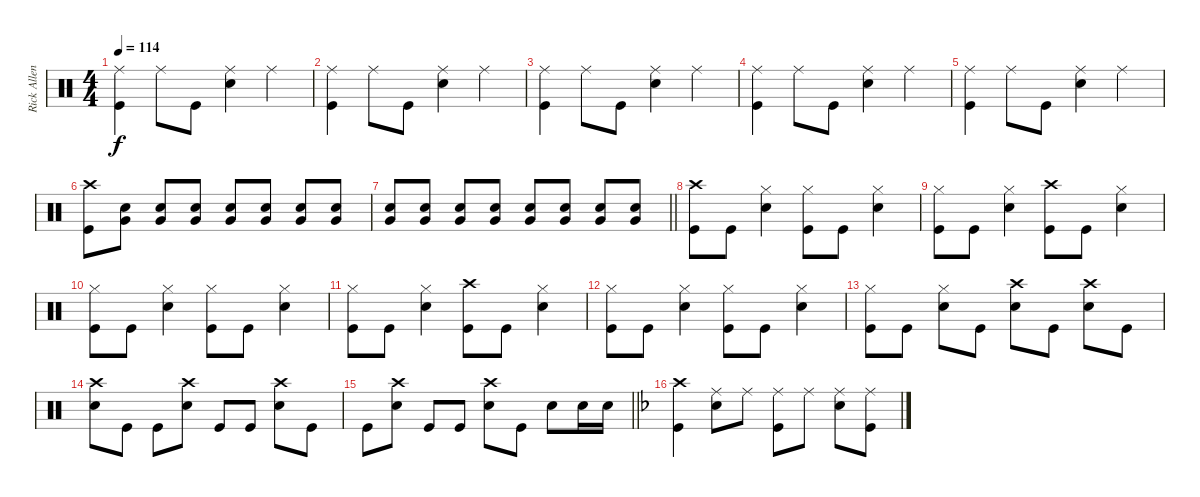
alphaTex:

\track ("Rick Allen" "Rick Allen") {instrument percussion}
\staff {score}
\articulation defaults
\ts (4 4)
\tempo 114
\clef neutral
\ks c
("Ride (middle)" "Kick (hit)").4{dy f} "Ride (middle)".8 "Kick (hit)".8 ("Ride (middle)" "Snare (hit) 2").4 "Ride (middle)".4 |
("Ride (middle)" "Kick (hit)").4 "Ride (middle)".8 "Kick (hit)".8 ("Ride (middle)" "Snare (hit) 2").4 "Ride (middle)".4 |
("Ride (middle)" "Kick (hit)").4 "Ride (middle)".8 "Kick (hit)".8 ("Ride (middle)" "Snare (hit) 2").4 "Ride (middle)".4 |
("Ride (middle)" "Kick (hit)").4 "Ride (middle)".8 "Kick (hit)".8 ("Ride (middle)" "Snare (hit) 2").4 "Ride (middle)".4 |
("Ride (middle)" "Kick (hit)").4 "Ride (middle)".8 "Kick (hit)".8 ("Ride (middle)" "Snare (hit) 2").4 "Ride (middle)".4 |
("Crash high (hit)" "Kick (hit)").8 ("Snare (hit) 2" "Very Low Tom (hit)").8 ("Snare (hit) 2" "Very Low Tom (hit)").8 ("Snare (hit) 2" "Very Low Tom (hit)").8 ("Snare (hit) 2" "Very Low Tom (hit)").8 ("Snare (hit) 2" "Very Low Tom (hit)").8 ("Snare (hit) 2" "Very Low Tom (hit)").8 ("Snare (hit) 2" "Very Low Tom (hit)").8 |
\barLineRight lightlight
("Snare (hit) 2" "Very Low Tom (hit)").8 ("Snare (hit) 2" "Very Low Tom (hit)").8 ("Snare (hit) 2" "Very Low Tom (hit)").8 ("Snare (hit) 2" "Very Low Tom (hit)").8 ("Snare (hit) 2" "Very Low Tom (hit)").8 ("Snare (hit) 2" "Very Low Tom (hit)").8 ("Snare (hit) 2" "Very Low Tom (hit)").8 ("Snare (hit) 2" "Very Low Tom (hit)").8 |
("Crash high (hit)" "Kick (hit)").8 "Kick (hit)".8 ("Hi-Hat (closed)" "Snare (hit) 2").4 ("Hi-Hat (closed)" "Kick (hit)").8 "Kick (hit)".8 ("Hi-Hat (closed)" "Snare (hit) 2").4 |
("Hi-Hat (closed)" "Kick (hit)").8 "Kick (hit)".8 ("Hi-Hat (closed)" "Snare (hit) 2").4 ("Crash high (hit)" "Kick (hit)").8 "Kick (hit)".8 ("Hi-Hat (closed)" "Snare (hit) 2").4 |
("Hi-Hat (closed)" "Kick (hit)").8 "Kick (hit)".8 ("Hi-Hat (closed)" "Snare (hit) 2").4 ("Hi-Hat (closed)" "Kick (hit)").8 "Kick (hit)".8 ("Hi-Hat (closed)" "Snare (hit) 2").4 |
("Hi-Hat (closed)" "Kick (hit)").8 "Kick (hit)".8 ("Hi-Hat (closed)" "Snare (hit) 2").4 ("Crash high (hit)" "Kick (hit)").8 "Kick (hit)".8 ("Hi-Hat (closed)" "Snare (hit) 2").4 |
("Hi-Hat (closed)" "Kick (hit)").8 "Kick (hit)".8 ("Hi-Hat (closed)" "Snare (hit) 2").4 ("Hi-Hat (closed)" "Kick (hit)").8 "Kick (hit)".8 ("Hi-Hat (closed)" "Snare (hit) 2").4 |
("Hi-Hat (closed)" "Kick (hit)").8 "Kick (hit)".8 ("Hi-Hat (closed)" "Snare (hit) 2").8 "Kick (hit)".8 ("Crash high (hit)" "Snare (hit) 2").8 "Kick (hit)".8 ("Crash high (hit)" "Snare (hit) 2").8 "Kick (hit)".8 |
("Crash high (hit)" "Snare (hit) 2").8 "Kick (hit)".8 "Kick (hit)".8 ("Crash high (hit)" "Snare (hit) 2").8 "Kick (hit)".8 "Kick (hit)".8 ("Crash high (hit)" "Snare (hit) 2").8 "Kick (hit)".8 |
\barLineRight lightlight "Kick (hit)".8
("Crash high (hit)" "Snare (hit) 2").8 "Kick (hit)".8 "Kick (hit)".8 ("Crash high (hit)" "Snare (hit) 2").8 "Kick (hit)".8 "Snare (hit) 2".8 "Snare (hit) 2".16 "Snare (hit) 2".16 |
\ks dminor
("Crash high (hit)" "Kick (hit)").4 ("Ride (middle)" "Snare (hit) 2").8 "Ride (middle)".8 ("Ride (middle)" "Kick (hit)").8 "Ride (middle)".8 ("Ride (middle)" "Snare (hit) 2").8 ("Ride (middle)" "Kick (hit)").8
